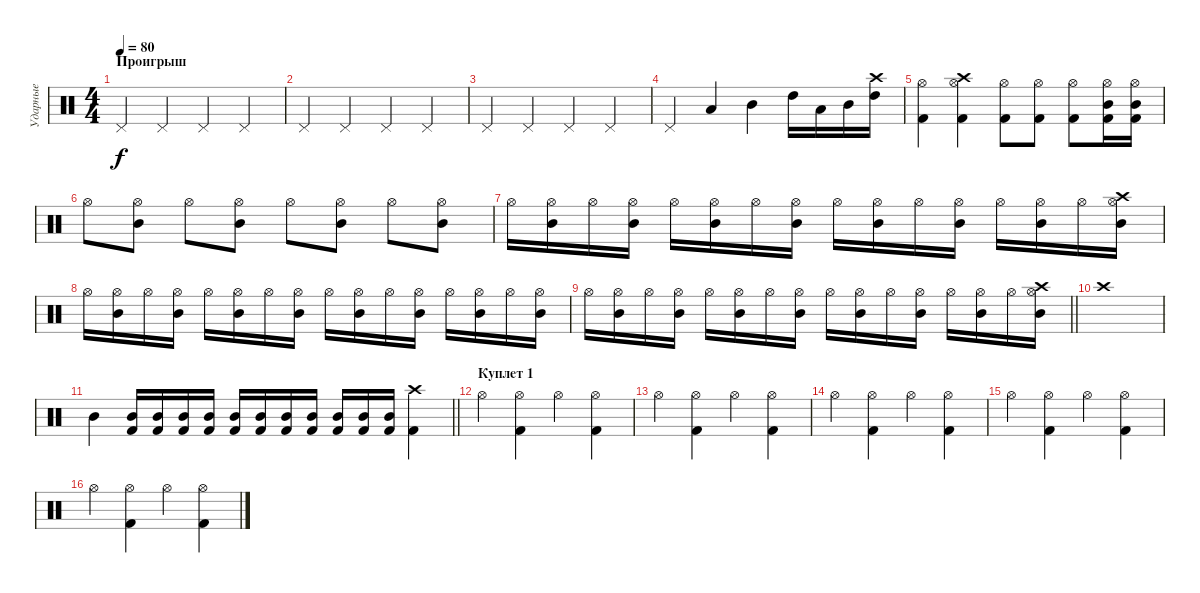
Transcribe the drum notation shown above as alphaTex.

\track ("Ударные" "Ударные") {instrument percussion}
\staff {score}
\articulation defaults
\ts (4 4)
\section ("" "Проигрыш")
\tempo 80
\clef neutral
\ks c "Pedal Hi-Hat (hit)".4{dy f} "Pedal Hi-Hat (hit)".4 "Pedal Hi-Hat (hit)".4 "Pedal Hi-Hat (hit)".4
|
"Pedal Hi-Hat (hit)".4 "Pedal Hi-Hat (hit)".4 "Pedal Hi-Hat (hit)".4 "Pedal Hi-Hat (hit)".4 |
"Pedal Hi-Hat (hit)".4 "Pedal Hi-Hat (hit)".4 "Pedal Hi-Hat (hit)".4 "Pedal Hi-Hat (hit)".4 |
"Pedal Hi-Hat (hit)".4 "Low Tom (hit)".4 "Mid Tom (hit)".4 "High Tom (hit)".16 "Low Tom (hit)".16 "Mid Tom (hit)".16 ("High Tom (hit)" "Crash high (hit)").16 |
("Hi-Hat (open)" "Kick (hit) 2").4 ("Hi-Hat (open)" "Crash high (hit)" "Kick (hit) 2").4 ("Hi-Hat (open)" "Kick (hit) 2").8 ("Hi-Hat (open)" "Kick (hit) 2").8 ("Hi-Hat (open)" "Kick (hit) 2").8 ("Hi-Hat (open)" "Mid Tom (hit)" "Kick (hit) 2").16 ("Hi-Hat (open)" "Mid Tom (hit)" "Kick (hit) 2").16 |
"Hi-Hat (open)".8 ("Hi-Hat (open)" "Mid Tom (hit)").8 "Hi-Hat (open)".8 ("Hi-Hat (open)" "Mid Tom (hit)").8 "Hi-Hat (open)".8 ("Hi-Hat (open)" "Mid Tom (hit)").8 "Hi-Hat (open)".8 ("Hi-Hat (open)" "Mid Tom (hit)").8 |
"Hi-Hat (open)".16 ("Hi-Hat (open)" "Mid Tom (hit)").16 "Hi-Hat (open)".16 ("Hi-Hat (open)" "Mid Tom (hit)").16 "Hi-Hat (open)".16 ("Hi-Hat (open)" "Mid Tom (hit)").16 "Hi-Hat (open)".16 ("Hi-Hat (open)" "Mid Tom (hit)").16 "Hi-Hat (open)".16 ("Hi-Hat (open)" "Mid Tom (hit)").16 "Hi-Hat (open)".16 ("Hi-Hat (open)" "Mid Tom (hit)").16 "Hi-Hat (open)".16 ("Hi-Hat (open)" "Mid Tom (hit)").16 "Hi-Hat (open)".16 ("Hi-Hat (open)" "Crash high (hit)" "Mid Tom (hit)").16 |
"Hi-Hat (open)".16 ("Hi-Hat (open)" "Mid Tom (hit)").16 "Hi-Hat (open)".16 ("Hi-Hat (open)" "Mid Tom (hit)").16 "Hi-Hat (open)".16 ("Hi-Hat (open)" "Mid Tom (hit)").16 "Hi-Hat (open)".16 ("Hi-Hat (open)" "Mid Tom (hit)").16 "Hi-Hat (open)".16 ("Hi-Hat (open)" "Mid Tom (hit)").16 "Hi-Hat (open)".16 ("Hi-Hat (open)" "Mid Tom (hit)").16 "Hi-Hat (open)".16 ("Hi-Hat (open)" "Mid Tom (hit)").16 "Hi-Hat (open)".16 ("Hi-Hat (open)" "Mid Tom (hit)").16 |
\barLineRight lightlight "Hi-Hat (open)".16
("Hi-Hat (open)" "Mid Tom (hit)").16 "Hi-Hat (open)".16 ("Hi-Hat (open)" "Mid Tom (hit)").16 "Hi-Hat (open)".16 ("Hi-Hat (open)" "Mid Tom (hit)").16 "Hi-Hat (open)".16 ("Hi-Hat (open)" "Mid Tom (hit)").16 "Hi-Hat (open)".16 ("Hi-Hat (open)" "Mid Tom (hit)").16 "Hi-Hat (open)".16 ("Hi-Hat (open)" "Mid Tom (hit)").16 "Hi-Hat (open)".16 ("Hi-Hat (open)" "Mid Tom (hit)").16 "Hi-Hat (open)".16 ("Hi-Hat (open)" "Crash high (hit)" "Mid Tom (hit)").16 |
\section ("" "")
"Crash high (hit)".1 |
\barLineRight lightlight "Mid Tom (hit)".4
("Mid Tom (hit)" "Kick (hit) 2").16 ("Mid Tom (hit)" "Kick (hit) 2").16 ("Mid Tom (hit)" "Kick (hit) 2").16 ("Mid Tom (hit)" "Kick (hit) 2").16 ("Mid Tom (hit)" "Kick (hit) 2").16 ("Mid Tom (hit)" "Kick (hit) 2").16 ("Mid Tom (hit)" "Kick (hit) 2").16 ("Mid Tom (hit)" "Kick (hit) 2").16 ("Mid Tom (hit)" "Kick (hit) 2").16 ("Mid Tom (hit)" "Kick (hit) 2").16 ("Mid Tom (hit)" "Kick (hit) 2").16 ("Crash high (hit)" "Kick (hit) 2").4 |
\section ("" "Куплет 1")
"Hi-Hat (open)".4 ("Hi-Hat (open)" "Kick (hit) 2").4 "Hi-Hat (open)".4 ("Hi-Hat (open)" "Kick (hit) 2").4 |
"Hi-Hat (open)".4 ("Hi-Hat (open)" "Kick (hit) 2").4 "Hi-Hat (open)".4 ("Hi-Hat (open)" "Kick (hit) 2").4 |
"Hi-Hat (open)".4 ("Hi-Hat (open)" "Kick (hit) 2").4 "Hi-Hat (open)".4 ("Hi-Hat (open)" "Kick (hit) 2").4 |
"Hi-Hat (open)".4 ("Hi-Hat (open)" "Kick (hit) 2").4 "Hi-Hat (open)".4 ("Hi-Hat (open)" "Kick (hit) 2").4 |
"Hi-Hat (open)".4 ("Hi-Hat (open)" "Kick (hit) 2").4 "Hi-Hat (open)".4 ("Hi-Hat (open)" "Kick (hit) 2").4
